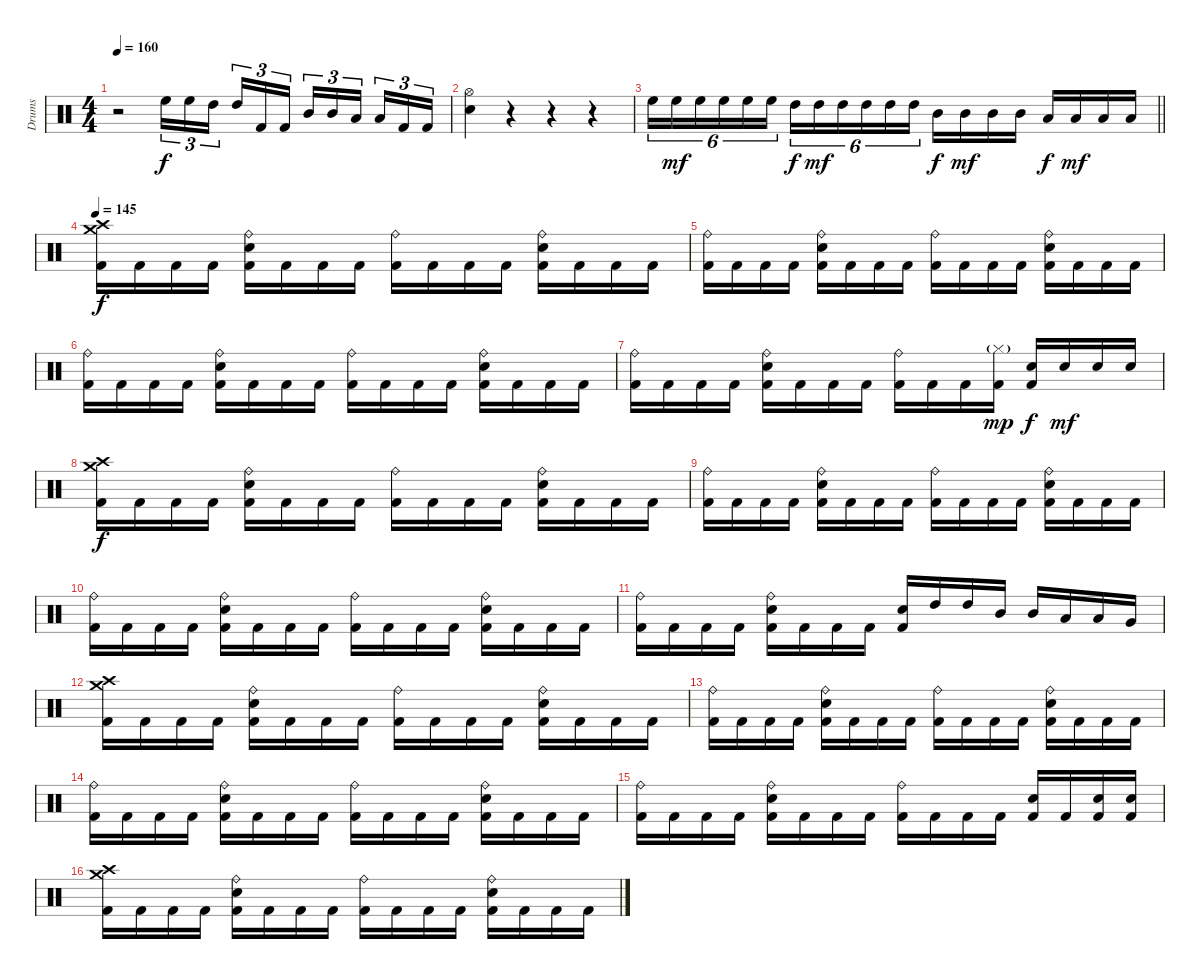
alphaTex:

\track ("Drums" "Drums") {instrument percussion}
\staff {score}
\articulation defaults
\ts (4 4)
\tempo 160
\clef neutral
\ks c
r.2{dy f} "High Floor Tom (hit)".16{tu (3 2)} "High Floor Tom (hit)".16{tu (3 2)} "High Tom (hit)".16{tu (3 2)} "High Tom (hit)".16{tu (3 2)} "Kick (hit) 2".16{tu (3 2)} "Kick (hit) 2".16{tu (3 2)} "Mid Tom (hit)".16{tu (3 2)} "Mid Tom (hit)".16{tu (3 2)} "Low Tom (hit)".16{tu (3 2)} "Low Tom (hit)".16{tu (3 2)} "Kick (hit) 2".16{tu (3 2)} "Kick (hit) 2".16{tu (3 2)} |
("Hi-Hat (open)" "Electric Snare (hit)").4 r.4 r.4 r.4 |
\barLineRight lightlight "High Floor Tom (hit)".16{tu (6 4)} "High Floor Tom (hit)".16{tu (6 4) dy mf} "High Floor Tom (hit)".16{tu (6 4)} "High Floor Tom (hit)".16{tu (6 4)} "High Floor Tom (hit)".16{tu (6 4)} "High Floor Tom (hit)".16{tu (6 4)} "High Tom (hit)".16{tu (6 4) dy f} "High Tom (hit)".16{tu (6 4) dy mf} "High Tom (hit)".16{tu (6 4)} "High Tom (hit)".16{tu (6 4)} "High Tom (hit)".16{tu (6 4)} "High Tom (hit)".16{tu (6 4)} "Mid Tom (hit)".16{dy f} "Mid Tom (hit)".16{dy mf} "Mid Tom (hit)".16 "Mid Tom (hit)".16 "Low Tom (hit)".16{dy f} "Low Tom (hit)".16{dy mf} "Low Tom (hit)".16 "Low Tom (hit)".16
|
\tempo 145
("Crash high (hit)" "Crash medium (hit)" "Kick (hit) 2").16{dy f} "Kick (hit) 2".16 "Kick (hit) 2".16 "Kick (hit) 2".16 ("Ride (bell)" "Electric Snare (hit)" "Kick (hit) 2").16 "Kick (hit) 2".16 "Kick (hit) 2".16 "Kick (hit) 2".16 ("Ride (bell)" "Kick (hit) 2").16 "Kick (hit) 2".16 "Kick (hit) 2".16 "Kick (hit) 2".16 ("Ride (bell)" "Electric Snare (hit)" "Kick (hit) 2").16 "Kick (hit) 2".16 "Kick (hit) 2".16 "Kick (hit) 2".16 |
("Ride (bell)" "Kick (hit) 2").16 "Kick (hit) 2".16 "Kick (hit) 2".16 "Kick (hit) 2".16 ("Ride (bell)" "Electric Snare (hit)" "Kick (hit) 2").16 "Kick (hit) 2".16 "Kick (hit) 2".16 "Kick (hit) 2".16 ("Ride (bell)" "Kick (hit) 2").16 "Kick (hit) 2".16 "Kick (hit) 2".16 "Kick (hit) 2".16 ("Ride (bell)" "Electric Snare (hit)" "Kick (hit) 2").16 "Kick (hit) 2".16 "Kick (hit) 2".16 "Kick (hit) 2".16 |
("Ride (bell)" "Kick (hit) 2").16 "Kick (hit) 2".16 "Kick (hit) 2".16 "Kick (hit) 2".16 ("Ride (bell)" "Electric Snare (hit)" "Kick (hit) 2").16 "Kick (hit) 2".16 "Kick (hit) 2".16 "Kick (hit) 2".16 ("Ride (bell)" "Kick (hit) 2").16 "Kick (hit) 2".16 "Kick (hit) 2".16 "Kick (hit) 2".16 ("Ride (bell)" "Electric Snare (hit)" "Kick (hit) 2").16 "Kick (hit) 2".16 "Kick (hit) 2".16 "Kick (hit) 2".16 |
("Ride (bell)" "Kick (hit) 2").16 "Kick (hit) 2".16 "Kick (hit) 2".16 "Kick (hit) 2".16 ("Ride (bell)" "Electric Snare (hit)" "Kick (hit) 2").16 "Kick (hit) 2".16 "Kick (hit) 2".16 "Kick (hit) 2".16 ("Ride (bell)" "Kick (hit) 2").16 "Kick (hit) 2".16 "Kick (hit) 2".16 ("Hi-Hat (closed)"{g} "Kick (hit) 2").16{dy mp} ("Electric Snare (hit)" "Kick (hit) 2").16{dy f} "Electric Snare (hit)".16{dy mf} "Electric Snare (hit)".16 "Electric Snare (hit)".16 |
("Crash high (hit)" "Crash medium (hit)" "Kick (hit) 2").16{dy f} "Kick (hit) 2".16 "Kick (hit) 2".16 "Kick (hit) 2".16 ("Ride (bell)" "Electric Snare (hit)" "Kick (hit) 2").16 "Kick (hit) 2".16 "Kick (hit) 2".16 "Kick (hit) 2".16 ("Ride (bell)" "Kick (hit) 2").16 "Kick (hit) 2".16 "Kick (hit) 2".16 "Kick (hit) 2".16 ("Ride (bell)" "Electric Snare (hit)" "Kick (hit) 2").16 "Kick (hit) 2".16 "Kick (hit) 2".16 "Kick (hit) 2".16 |
("Ride (bell)" "Kick (hit) 2").16 "Kick (hit) 2".16 "Kick (hit) 2".16 "Kick (hit) 2".16 ("Ride (bell)" "Electric Snare (hit)" "Kick (hit) 2").16 "Kick (hit) 2".16 "Kick (hit) 2".16 "Kick (hit) 2".16 ("Ride (bell)" "Kick (hit) 2").16 "Kick (hit) 2".16 "Kick (hit) 2".16 "Kick (hit) 2".16 ("Ride (bell)" "Electric Snare (hit)" "Kick (hit) 2").16 "Kick (hit) 2".16 "Kick (hit) 2".16 "Kick (hit) 2".16 |
("Ride (bell)" "Kick (hit) 2").16 "Kick (hit) 2".16 "Kick (hit) 2".16 "Kick (hit) 2".16 ("Ride (bell)" "Electric Snare (hit)" "Kick (hit) 2").16 "Kick (hit) 2".16 "Kick (hit) 2".16 "Kick (hit) 2".16 ("Ride (bell)" "Kick (hit) 2").16 "Kick (hit) 2".16 "Kick (hit) 2".16 "Kick (hit) 2".16 ("Ride (bell)" "Electric Snare (hit)" "Kick (hit) 2").16 "Kick (hit) 2".16 "Kick (hit) 2".16 "Kick (hit) 2".16 |
("Ride (bell)" "Kick (hit) 2").16 "Kick (hit) 2".16 "Kick (hit) 2".16 "Kick (hit) 2".16 ("Ride (bell)" "Electric Snare (hit)" "Kick (hit) 2").16 "Kick (hit) 2".16 "Kick (hit) 2".16 "Kick (hit) 2".16 ("Electric Snare (hit)" "Kick (hit) 2").16 "High Tom (hit)".16 "High Tom (hit)".16 "Mid Tom (hit)".16 "Mid Tom (hit)".16 "Low Tom (hit)".16 "Low Tom (hit)".16 "Very Low Tom (hit)".16 |
("Crash high (hit)" "Crash medium (hit)" "Kick (hit) 2").16 "Kick (hit) 2".16 "Kick (hit) 2".16 "Kick (hit) 2".16 ("Ride (bell)" "Electric Snare (hit)" "Kick (hit) 2").16 "Kick (hit) 2".16 "Kick (hit) 2".16 "Kick (hit) 2".16 ("Ride (bell)" "Kick (hit) 2").16 "Kick (hit) 2".16 "Kick (hit) 2".16 "Kick (hit) 2".16 ("Ride (bell)" "Electric Snare (hit)" "Kick (hit) 2").16 "Kick (hit) 2".16 "Kick (hit) 2".16 "Kick (hit) 2".16 |
("Ride (bell)" "Kick (hit) 2").16 "Kick (hit) 2".16 "Kick (hit) 2".16 "Kick (hit) 2".16 ("Ride (bell)" "Electric Snare (hit)" "Kick (hit) 2").16 "Kick (hit) 2".16 "Kick (hit) 2".16 "Kick (hit) 2".16 ("Ride (bell)" "Kick (hit) 2").16 "Kick (hit) 2".16 "Kick (hit) 2".16 "Kick (hit) 2".16 ("Ride (bell)" "Electric Snare (hit)" "Kick (hit) 2").16 "Kick (hit) 2".16 "Kick (hit) 2".16 "Kick (hit) 2".16 |
("Ride (bell)" "Kick (hit) 2").16 "Kick (hit) 2".16 "Kick (hit) 2".16 "Kick (hit) 2".16 ("Ride (bell)" "Electric Snare (hit)" "Kick (hit) 2").16 "Kick (hit) 2".16 "Kick (hit) 2".16 "Kick (hit) 2".16 ("Ride (bell)" "Kick (hit) 2").16 "Kick (hit) 2".16 "Kick (hit) 2".16 "Kick (hit) 2".16 ("Ride (bell)" "Electric Snare (hit)" "Kick (hit) 2").16 "Kick (hit) 2".16 "Kick (hit) 2".16 "Kick (hit) 2".16 |
("Ride (bell)" "Kick (hit) 2").16 "Kick (hit) 2".16 "Kick (hit) 2".16 "Kick (hit) 2".16 ("Ride (bell)" "Electric Snare (hit)" "Kick (hit) 2").16 "Kick (hit) 2".16 "Kick (hit) 2".16 "Kick (hit) 2".16 ("Ride (bell)" "Kick (hit) 2").16 "Kick (hit) 2".16 "Kick (hit) 2".16 "Kick (hit) 2".16 ("Electric Snare (hit)" "Kick (hit) 2").16 "Kick (hit) 2".16 ("Electric Snare (hit)" "Kick (hit) 2").16 ("Electric Snare (hit)" "Kick (hit) 2").16 |
("Crash high (hit)" "Crash medium (hit)" "Kick (hit) 2").16 "Kick (hit) 2".16 "Kick (hit) 2".16 "Kick (hit) 2".16 ("Ride (bell)" "Electric Snare (hit)" "Kick (hit) 2").16 "Kick (hit) 2".16 "Kick (hit) 2".16 "Kick (hit) 2".16 ("Ride (bell)" "Kick (hit) 2").16 "Kick (hit) 2".16 "Kick (hit) 2".16 "Kick (hit) 2".16 ("Ride (bell)" "Electric Snare (hit)" "Kick (hit) 2").16 "Kick (hit) 2".16 "Kick (hit) 2".16 "Kick (hit) 2".16
